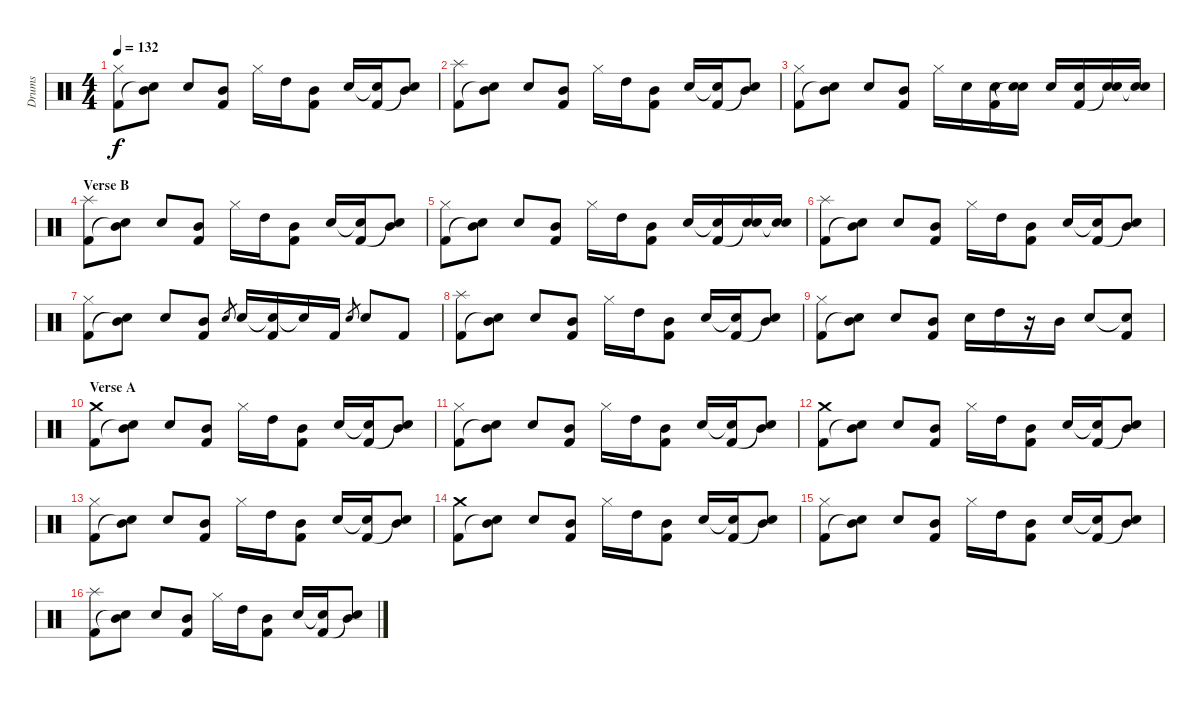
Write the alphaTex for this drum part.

\track ("Drums" "Drums") {instrument percussion}
\staff {score}
\articulation defaults
\ts (4 4)
\tempo 132
\clef neutral
\ks c
("Hi-Hat (closed)" "Kick (hit) 2").8{dy f} ("Mid Tom (hit)" "Snare (hit)"{t}).8 "Electric Snare (hit)".8 ("Mid Tom (hit)" "Kick (hit) 2").8 "Hi-Hat (closed)".16 "High Tom (hit)".16 ("Mid Tom (hit)" "Kick (hit) 2").8 "Electric Snare (hit)".16 ("Snare (hit)"{t} "Kick (hit) 2").16 ("Mid Tom (hit)" "Snare (hit)"{t}).8 |
("Splash (hit)" "Kick (hit) 2").8 ("Mid Tom (hit)" "Snare (hit)"{t}).8 "Electric Snare (hit)".8 ("Mid Tom (hit)" "Kick (hit) 2").8 "Hi-Hat (closed)".16 "High Tom (hit)".16 ("Mid Tom (hit)" "Kick (hit) 2").8 "Electric Snare (hit)".16 ("Snare (hit)"{t} "Kick (hit) 2").16 ("Mid Tom (hit)" "Snare (hit)"{t}).8 |
("Hi-Hat (closed)" "Kick (hit) 2").8 ("Mid Tom (hit)" "Snare (hit)"{t}).8 "Electric Snare (hit)".8 ("Mid Tom (hit)" "Kick (hit) 2").8 "Hi-Hat (closed)".16 "Electric Snare (hit)".16 ("Electric Snare (hit)" "Kick (hit) 2").16 ("Electric Snare (hit)" "Snare (hit)"{t}).16 "Electric Snare (hit)".16 ("Electric Snare (hit)" "Kick (hit) 2").16 ("Electric Snare (hit)" "Snare (hit)"{t}).16 ("Electric Snare (hit)" "Snare (hit)"{t}).16 |
\section ("" "Verse B")
("Splash (hit)" "Kick (hit) 2").8 ("Mid Tom (hit)" "Snare (hit)"{t}).8 "Electric Snare (hit)".8 ("Mid Tom (hit)" "Kick (hit) 2").8 "Hi-Hat (closed)".16 "High Tom (hit)".16 ("Mid Tom (hit)" "Kick (hit) 2").8 "Electric Snare (hit)".16 ("Snare (hit)"{t} "Kick (hit) 2").16 ("Mid Tom (hit)" "Snare (hit)"{t}).8 |
("Hi-Hat (closed)" "Kick (hit) 2").8 ("Mid Tom (hit)" "Snare (hit)"{t}).8 "Electric Snare (hit)".8 ("Mid Tom (hit)" "Kick (hit) 2").8 "Hi-Hat (closed)".16 "High Tom (hit)".16 ("Mid Tom (hit)" "Kick (hit) 2").8 "Electric Snare (hit)".16 ("Snare (hit)"{t} "Kick (hit) 2").16 ("Electric Snare (hit)" "Snare (hit)"{t}).16 ("Electric Snare (hit)" "Snare (hit)"{t}).16 |
("Splash (hit)" "Kick (hit) 2").8 ("Mid Tom (hit)" "Snare (hit)"{t}).8 "Electric Snare (hit)".8 ("Mid Tom (hit)" "Kick (hit) 2").8 "Hi-Hat (closed)".16 "High Tom (hit)".16 ("Mid Tom (hit)" "Kick (hit) 2").8 "Electric Snare (hit)".16 ("Snare (hit)"{t} "Kick (hit) 2").16 ("Mid Tom (hit)" "Snare (hit)"{t}).8 |
("Hi-Hat (closed)" "Kick (hit) 2").8 ("Mid Tom (hit)" "Snare (hit)"{t}).8 "Electric Snare (hit)".8 ("Mid Tom (hit)" "Kick (hit) 2").8 "Electric Snare (hit)".8{gr} "Electric Snare (hit)".16 ("Snare (hit)"{t} "Kick (hit) 2").16 "Snare (hit)"{t}.16 "Kick (hit) 2".16 "Electric Snare (hit)".8{gr} "Electric Snare (hit)".8 "Kick (hit) 2".8 |
("Splash (hit)" "Kick (hit) 2").8 ("Mid Tom (hit)" "Snare (hit)"{t}).8 "Electric Snare (hit)".8 ("Mid Tom (hit)" "Kick (hit) 2").8 "Hi-Hat (closed)".16 "High Tom (hit)".16 ("Mid Tom (hit)" "Kick (hit) 2").8 "Electric Snare (hit)".16 ("Snare (hit)"{t} "Kick (hit) 2").16 ("Mid Tom (hit)" "Snare (hit)"{t}).8 |
("Hi-Hat (closed)" "Kick (hit) 2").8 ("Mid Tom (hit)" "Snare (hit)"{t}).8 "Electric Snare (hit)".8 ("Mid Tom (hit)" "Kick (hit) 2").8 "Electric Snare (hit)".16 "High Tom (hit)".16 r.16 "Mid Tom (hit)".16 "Electric Snare (hit)".8 ("Snare (hit)"{t} "Kick (hit) 2").8 |
\section ("" "Verse A")
("Crash medium (hit)" "Kick (hit) 2").8 ("Mid Tom (hit)" "Snare (hit)"{t}).8 "Electric Snare (hit)".8 ("Mid Tom (hit)" "Kick (hit) 2").8 "Hi-Hat (closed)".16 "High Tom (hit)".16 ("Mid Tom (hit)" "Kick (hit) 2").8 "Electric Snare (hit)".16 ("Snare (hit)"{t} "Kick (hit) 2").16 ("Mid Tom (hit)" "Snare (hit)"{t}).8 |
("Hi-Hat (closed)" "Kick (hit) 2").8 ("Mid Tom (hit)" "Snare (hit)"{t}).8 "Electric Snare (hit)".8 ("Mid Tom (hit)" "Kick (hit) 2").8 "Hi-Hat (closed)".16 "High Tom (hit)".16 ("Mid Tom (hit)" "Kick (hit) 2").8 "Electric Snare (hit)".16 ("Snare (hit)"{t} "Kick (hit) 2").16 ("Mid Tom (hit)" "Snare (hit)"{t}).8 |
("Crash medium (hit)" "Kick (hit) 2").8 ("Mid Tom (hit)" "Snare (hit)"{t}).8 "Electric Snare (hit)".8 ("Mid Tom (hit)" "Kick (hit) 2").8 "Hi-Hat (closed)".16 "High Tom (hit)".16 ("Mid Tom (hit)" "Kick (hit) 2").8 "Electric Snare (hit)".16 ("Snare (hit)"{t} "Kick (hit) 2").16 ("Mid Tom (hit)" "Snare (hit)"{t}).8 |
("Hi-Hat (closed)" "Kick (hit) 2").8 ("Mid Tom (hit)" "Snare (hit)"{t}).8 "Electric Snare (hit)".8 ("Mid Tom (hit)" "Kick (hit) 2").8 "Hi-Hat (closed)".16 "High Tom (hit)".16 ("Mid Tom (hit)" "Kick (hit) 2").8 "Electric Snare (hit)".16 ("Snare (hit)"{t} "Kick (hit) 2").16 ("Mid Tom (hit)" "Snare (hit)"{t}).8 |
("Crash medium (hit)" "Kick (hit) 2").8 ("Mid Tom (hit)" "Snare (hit)"{t}).8 "Electric Snare (hit)".8 ("Mid Tom (hit)" "Kick (hit) 2").8 "Hi-Hat (closed)".16 "High Tom (hit)".16 ("Mid Tom (hit)" "Kick (hit) 2").8 "Electric Snare (hit)".16 ("Snare (hit)"{t} "Kick (hit) 2").16 ("Mid Tom (hit)" "Snare (hit)"{t}).8 |
("Hi-Hat (closed)" "Kick (hit) 2").8 ("Mid Tom (hit)" "Snare (hit)"{t}).8 "Electric Snare (hit)".8 ("Mid Tom (hit)" "Kick (hit) 2").8 "Hi-Hat (closed)".16 "High Tom (hit)".16 ("Mid Tom (hit)" "Kick (hit) 2").8 "Electric Snare (hit)".16 ("Snare (hit)"{t} "Kick (hit) 2").16 ("Mid Tom (hit)" "Snare (hit)"{t}).8 |
("Splash (hit)" "Kick (hit) 2").8 ("Mid Tom (hit)" "Snare (hit)"{t}).8 "Electric Snare (hit)".8 ("Mid Tom (hit)" "Kick (hit) 2").8 "Hi-Hat (closed)".16 "High Tom (hit)".16 ("Mid Tom (hit)" "Kick (hit) 2").8 "Electric Snare (hit)".16 ("Snare (hit)"{t} "Kick (hit) 2").16 ("Mid Tom (hit)" "Snare (hit)"{t}).8
